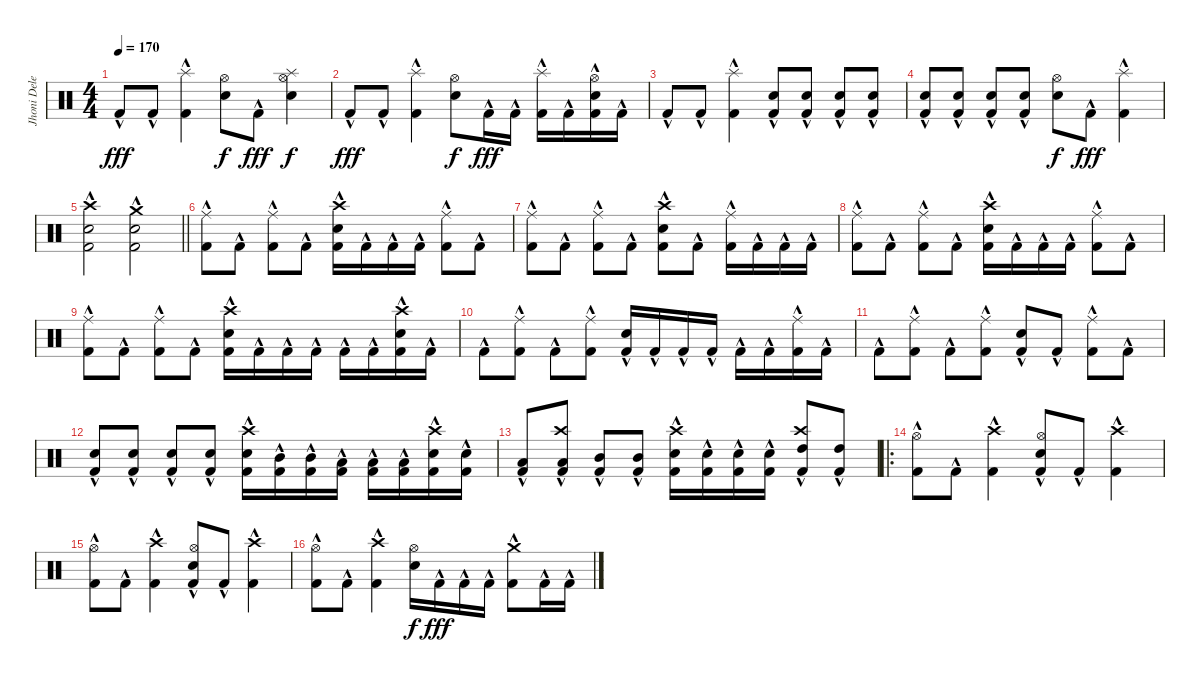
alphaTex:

\track ("Jhoni Delenger" "Jhoni Dele") {instrument percussion}
\staff {score}
\articulation defaults
\ts (4 4)
\tempo 170
\clef neutral
\ks c "Kick (hit) 2"{hac}.8{dy fff} "Kick (hit) 2"{hac}.8
("Kick (hit) 2"{hac} "Splash (hit)"{hac}).4 ("Hi-Hat (open)" "Snare (hit) 2").8{dy f} "Kick (hit) 2"{hac}.8{dy fff} ("Hi-Hat (open)" "Snare (hit) 2" "Splash (hit)").4{dy f} |
"Kick (hit) 2"{hac}.8{dy fff} "Kick (hit) 2"{hac}.8 ("Kick (hit) 2"{hac} "Splash (hit)"{hac}).4 ("Hi-Hat (open)" "Snare (hit) 2").8{dy f} "Kick (hit) 2"{hac}.16{dy fff} "Kick (hit) 2"{hac}.16 ("Kick (hit) 2"{hac} "Splash (hit)"{hac}).16 "Kick (hit) 2"{hac}.16 ("Hi-Hat (open)" "Snare (hit) 2" "Kick (hit) 2"{hac}).16 "Kick (hit) 2"{hac}.16 |
"Kick (hit) 2"{hac}.8 "Kick (hit) 2"{hac}.8 ("Kick (hit) 2"{hac} "Splash (hit)"{hac}).4 ("Kick (hit) 2"{hac} "Snare (hit) 2").8 ("Kick (hit) 2"{hac} "Snare (hit) 2").8 ("Kick (hit) 2"{hac} "Snare (hit) 2").8 ("Kick (hit) 2"{hac} "Snare (hit) 2").8 |
("Kick (hit) 2"{hac} "Snare (hit) 2").8 ("Kick (hit) 2"{hac} "Snare (hit) 2").8 ("Kick (hit) 2"{hac} "Snare (hit) 2").8 ("Kick (hit) 2"{hac} "Snare (hit) 2").8 ("Hi-Hat (open)" "Snare (hit) 2").8{dy f} "Kick (hit) 2"{hac}.8{dy fff} ("Kick (hit) 2"{hac} "Splash (hit)"{hac}).4 |
\barLineRight lightlight
("Snare (hit) 2" "Crash high (hit)" "Kick (hit) 2"{hac}).2 ("Snare (hit) 2" "Crash medium (hit)" "Kick (hit) 2"{hac}).2 |
("Ride (middle)"{hac} "Kick (hit) 2"{hac}).8 "Kick (hit) 2"{hac}.8 ("Kick (hit) 2"{hac} "Ride (middle)"{hac}).8 "Kick (hit) 2"{hac}.8 ("Crash high (hit)" "Snare (hit) 2" "Kick (hit) 2"{hac}).16 "Kick (hit) 2"{hac}.16 "Kick (hit) 2"{hac}.16 "Kick (hit) 2"{hac}.16 ("Kick (hit) 2"{hac} "Ride (middle)"{hac}).8 "Kick (hit) 2"{hac}.8 |
("Ride (middle)"{hac} "Kick (hit) 2"{hac}).8 "Kick (hit) 2"{hac}.8 ("Kick (hit) 2"{hac} "Ride (middle)"{hac}).8 "Kick (hit) 2"{hac}.8 ("Crash high (hit)" "Snare (hit) 2" "Kick (hit) 2"{hac}).8 "Kick (hit) 2"{hac}.8 ("Kick (hit) 2"{hac} "Ride (middle)"{hac}).16 "Kick (hit) 2"{hac}.16 "Kick (hit) 2"{hac}.16 "Kick (hit) 2"{hac}.16 |
("Ride (middle)"{hac} "Kick (hit) 2"{hac}).8 "Kick (hit) 2"{hac}.8 ("Kick (hit) 2"{hac} "Ride (middle)"{hac}).8 "Kick (hit) 2"{hac}.8 ("Crash high (hit)" "Snare (hit) 2" "Kick (hit) 2"{hac}).16 "Kick (hit) 2"{hac}.16 "Kick (hit) 2"{hac}.16 "Kick (hit) 2"{hac}.16 ("Kick (hit) 2"{hac} "Ride (middle)"{hac}).8 "Kick (hit) 2"{hac}.8 |
("Ride (middle)"{hac} "Kick (hit) 2"{hac}).8 "Kick (hit) 2"{hac}.8 ("Kick (hit) 2"{hac} "Ride (middle)"{hac}).8 "Kick (hit) 2"{hac}.8 ("Crash high (hit)" "Snare (hit) 2" "Kick (hit) 2"{hac}).16 "Kick (hit) 2"{hac}.16 "Kick (hit) 2"{hac}.16 "Kick (hit) 2"{hac}.16 "Kick (hit) 2"{hac}.16 "Kick (hit) 2"{hac}.16 ("Crash high (hit)" "Snare (hit) 2" "Kick (hit) 2"{hac}).16 "Kick (hit) 2"{hac}.16 |
"Kick (hit) 2"{hac}.8 ("Kick (hit) 2"{hac} "Ride (middle)"{hac}).8 "Kick (hit) 2"{hac}.8 ("Kick (hit) 2"{hac} "Ride (middle)"{hac}).8 ("Snare (hit) 2" "Kick (hit) 2"{hac}).16 "Kick (hit) 2"{hac}.16 "Kick (hit) 2"{hac}.16 "Kick (hit) 2"{hac}.16 "Kick (hit) 2"{hac}.16 "Kick (hit) 2"{hac}.16 ("Kick (hit) 2"{hac} "Ride (middle)"{hac}).16 "Kick (hit) 2"{hac}.16 |
"Kick (hit) 2"{hac}.8 ("Kick (hit) 2"{hac} "Ride (middle)"{hac}).8 "Kick (hit) 2"{hac}.8 ("Kick (hit) 2"{hac} "Ride (middle)"{hac}).8 ("Snare (hit) 2" "Kick (hit) 2"{hac}).8 "Kick (hit) 2"{hac}.8 ("Kick (hit) 2"{hac} "Ride (middle)"{hac}).8 "Kick (hit) 2"{hac}.8 |
("Snare (hit) 2" "Kick (hit) 2"{hac}).8 ("Kick (hit) 2"{hac} "Snare (hit) 2").8 ("Kick (hit) 2"{hac} "Snare (hit) 2").8 ("Kick (hit) 2"{hac} "Snare (hit) 2").8 ("Crash high (hit)" "Snare (hit) 2" "Kick (hit) 2"{hac}).16 ("Mid Tom (hit)"{hac} "Kick (hit) 2"{hac}).16 ("Mid Tom (hit)"{hac} "Kick (hit) 2"{hac}).16 ("Low Tom (hit)"{hac} "Kick (hit) 2"{hac}).16 ("Low Tom (hit)"{hac} "Kick (hit) 2"{hac}).16 ("Low Tom (hit)"{hac} "Kick (hit) 2"{hac}).16 ("Crash high (hit)" "Snare (hit) 2" "Kick (hit) 2"{hac}).16 ("Snare (hit) 2" "Kick (hit) 2"{hac}).16 |
("Kick (hit) 2"{hac} "Low Tom (hit)"{hac}).8 ("Kick (hit) 2"{hac} "Crash high (hit)" "Low Tom (hit)"{hac}).8 ("Mid Tom (hit)"{hac} "Kick (hit) 2"{hac}).8 ("Kick (hit) 2"{hac} "Mid Tom (hit)"{hac}).8 ("Crash high (hit)" "Snare (hit) 2" "Kick (hit) 2"{hac}).16 ("Kick (hit) 2"{hac} "Snare (hit) 2").16 ("Kick (hit) 2"{hac} "Snare (hit) 2").16 ("Kick (hit) 2"{hac} "Snare (hit) 2").16 ("Crash high (hit)" "Kick (hit) 2"{hac} "High Tom (hit)").8 ("Kick (hit) 2"{hac} "High Tom (hit)").8 |
\ro
("Hi-Hat (open)" "Kick (hit) 2"{hac}).8 "Kick (hit) 2"{hac}.8 ("Kick (hit) 2"{hac} "Crash high (hit)").4 ("Hi-Hat (open)" "Kick (hit) 2"{hac} "Snare (hit) 2").8 "Kick (hit) 2"{hac}.8 ("Kick (hit) 2"{hac} "Crash high (hit)").4 |
("Hi-Hat (open)" "Kick (hit) 2"{hac}).8 "Kick (hit) 2"{hac}.8 ("Kick (hit) 2"{hac} "Crash high (hit)").4 ("Hi-Hat (open)" "Kick (hit) 2"{hac} "Snare (hit) 2").8 "Kick (hit) 2"{hac}.8 ("Kick (hit) 2"{hac} "Crash high (hit)").4 |
("Hi-Hat (open)" "Kick (hit) 2"{hac}).8 "Kick (hit) 2"{hac}.8 ("Kick (hit) 2"{hac} "Crash high (hit)").4 ("Hi-Hat (open)" "Snare (hit) 2").16{dy f} "Kick (hit) 2"{hac}.16{dy fff} "Kick (hit) 2"{hac}.16 "Kick (hit) 2"{hac}.16 ("Kick (hit) 2"{hac} "Crash medium (hit)").8 "Kick (hit) 2"{hac}.16 "Kick (hit) 2"{hac}.16
